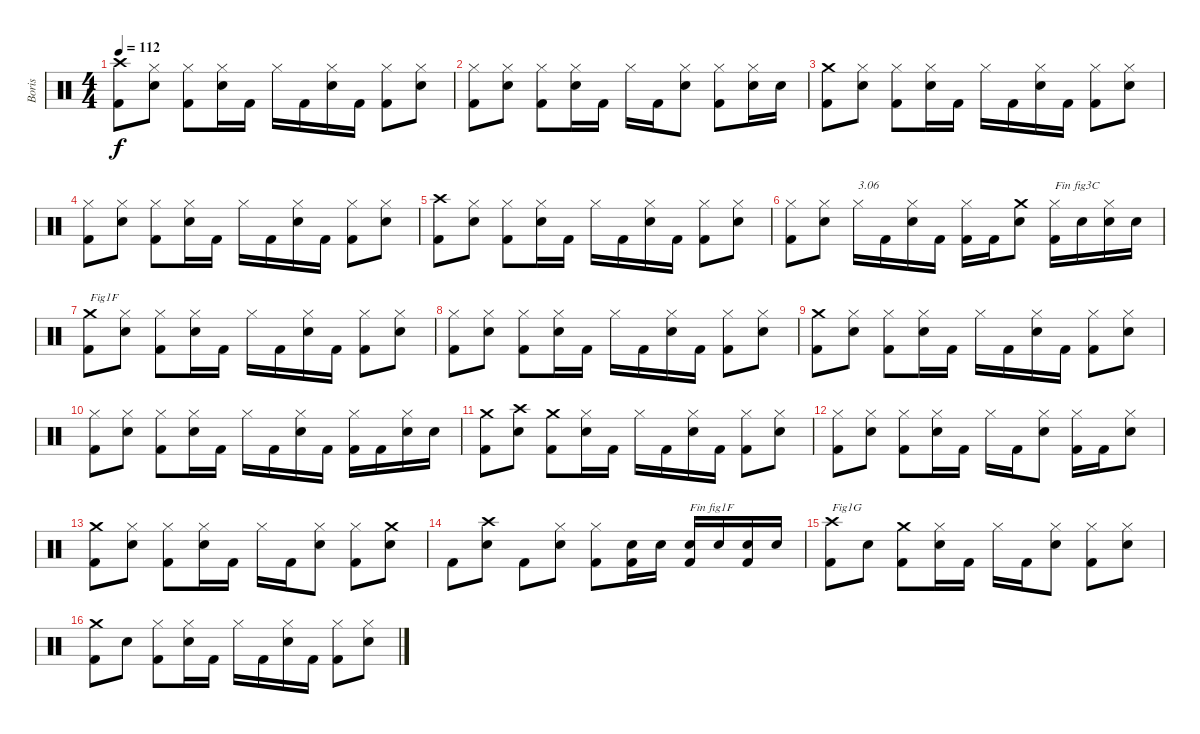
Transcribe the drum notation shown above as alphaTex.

\track ("Boris" "Boris") {instrument percussion}
\staff {score}
\articulation defaults
\ts (4 4)
\tempo 112
\clef neutral
\ks c
("Kick (hit) 2" "Crash high (hit)").8{dy f} ("Electric Snare (hit)" "Hi-Hat (closed)").8 ("Kick (hit) 2" "Hi-Hat (closed)").8 ("Electric Snare (hit)" "Hi-Hat (closed)").16 "Kick (hit) 2".16 "Hi-Hat (closed)".16 "Kick (hit) 2".16 ("Electric Snare (hit)" "Hi-Hat (closed)").16 "Kick (hit) 2".16 ("Kick (hit) 2" "Hi-Hat (closed)").8 ("Electric Snare (hit)" "Hi-Hat (closed)").8 |
("Kick (hit) 2" "Hi-Hat (closed)").8 ("Electric Snare (hit)" "Hi-Hat (closed)").8 ("Kick (hit) 2" "Hi-Hat (closed)").8 ("Electric Snare (hit)" "Hi-Hat (closed)").16 "Kick (hit) 2".16 "Hi-Hat (closed)".16 "Kick (hit) 2".16 ("Electric Snare (hit)" "Hi-Hat (closed)").8 ("Kick (hit) 2" "Hi-Hat (closed)").8 ("Electric Snare (hit)" "Hi-Hat (closed)").16 "Electric Snare (hit)".16 |
("Kick (hit) 2" "Crash medium (hit)").8 ("Electric Snare (hit)" "Hi-Hat (closed)").8 ("Kick (hit) 2" "Hi-Hat (closed)").8 ("Electric Snare (hit)" "Hi-Hat (closed)").16 "Kick (hit) 2".16 "Hi-Hat (closed)".16 "Kick (hit) 2".16 ("Electric Snare (hit)" "Hi-Hat (closed)").16 "Kick (hit) 2".16 ("Kick (hit) 2" "Hi-Hat (closed)").8 ("Electric Snare (hit)" "Hi-Hat (closed)").8 |
("Kick (hit) 2" "Hi-Hat (closed)").8 ("Electric Snare (hit)" "Hi-Hat (closed)").8 ("Kick (hit) 2" "Hi-Hat (closed)").8 ("Electric Snare (hit)" "Hi-Hat (closed)").16 "Kick (hit) 2".16 "Hi-Hat (closed)".16 "Kick (hit) 2".16 ("Electric Snare (hit)" "Hi-Hat (closed)").16 "Kick (hit) 2".16 ("Kick (hit) 2" "Hi-Hat (closed)").8 ("Electric Snare (hit)" "Hi-Hat (closed)").8 |
("Kick (hit) 2" "Crash high (hit)").8 ("Electric Snare (hit)" "Hi-Hat (closed)").8 ("Kick (hit) 2" "Hi-Hat (closed)").8 ("Electric Snare (hit)" "Hi-Hat (closed)").16 "Kick (hit) 2".16 "Hi-Hat (closed)".16 "Kick (hit) 2".16 ("Electric Snare (hit)" "Hi-Hat (closed)").16 "Kick (hit) 2".16 ("Kick (hit) 2" "Hi-Hat (closed)").8 ("Electric Snare (hit)" "Hi-Hat (closed)").8 |
("Kick (hit) 2" "Hi-Hat (closed)").8 ("Electric Snare (hit)" "Hi-Hat (closed)").8 "Hi-Hat (closed)".16{txt "3.06"} "Kick (hit) 2".16 ("Electric Snare (hit)" "Hi-Hat (closed)").16 "Kick (hit) 2".16 ("Kick (hit) 2" "Hi-Hat (closed)").16 "Kick (hit) 2".16 ("Electric Snare (hit)" "Crash medium (hit)").8 ("Kick (hit) 2" "Hi-Hat (closed)").16{txt "Fin fig3C"} "Electric Snare (hit)".16 ("Electric Snare (hit)" "Hi-Hat (closed)").16 "Electric Snare (hit)".16 |
("Kick (hit) 2" "Crash medium (hit)").8{txt "Fig1F"} ("Electric Snare (hit)" "Hi-Hat (closed)").8 ("Kick (hit) 2" "Hi-Hat (closed)").8 ("Electric Snare (hit)" "Hi-Hat (closed)").16 "Kick (hit) 2".16 "Hi-Hat (closed)".16 "Kick (hit) 2".16 ("Electric Snare (hit)" "Hi-Hat (closed)").16 "Kick (hit) 2".16 ("Kick (hit) 2" "Hi-Hat (closed)").8 ("Electric Snare (hit)" "Hi-Hat (closed)").8 |
("Kick (hit) 2" "Hi-Hat (closed)").8 ("Electric Snare (hit)" "Hi-Hat (closed)").8 ("Kick (hit) 2" "Hi-Hat (closed)").8 ("Electric Snare (hit)" "Hi-Hat (closed)").16 "Kick (hit) 2".16 "Hi-Hat (closed)".16 "Kick (hit) 2".16 ("Electric Snare (hit)" "Hi-Hat (closed)").16 "Kick (hit) 2".16 ("Kick (hit) 2" "Hi-Hat (closed)").8 ("Electric Snare (hit)" "Hi-Hat (closed)").8 |
("Kick (hit) 2" "Crash medium (hit)").8 ("Electric Snare (hit)" "Hi-Hat (closed)").8 ("Kick (hit) 2" "Hi-Hat (closed)").8 ("Electric Snare (hit)" "Hi-Hat (closed)").16 "Kick (hit) 2".16 "Hi-Hat (closed)".16 "Kick (hit) 2".16 ("Electric Snare (hit)" "Hi-Hat (closed)").16 "Kick (hit) 2".16 ("Kick (hit) 2" "Hi-Hat (closed)").8 ("Electric Snare (hit)" "Hi-Hat (closed)").8 |
("Kick (hit) 2" "Hi-Hat (closed)").8 ("Electric Snare (hit)" "Hi-Hat (closed)").8 ("Kick (hit) 2" "Hi-Hat (closed)").8 ("Electric Snare (hit)" "Hi-Hat (closed)").16 "Kick (hit) 2".16 "Hi-Hat (closed)".16 "Kick (hit) 2".16 ("Electric Snare (hit)" "Hi-Hat (closed)").16 "Kick (hit) 2".16 ("Kick (hit) 2" "Hi-Hat (closed)").16 "Kick (hit) 2".16 ("Electric Snare (hit)" "Hi-Hat (closed)").16 "Electric Snare (hit)".16 |
("Kick (hit) 2" "Crash medium (hit)").8 ("Electric Snare (hit)" "Crash high (hit)").8 ("Kick (hit) 2" "Crash medium (hit)").8 ("Electric Snare (hit)" "Hi-Hat (closed)").16 "Kick (hit) 2".16 "Hi-Hat (closed)".16 "Kick (hit) 2".16 ("Electric Snare (hit)" "Hi-Hat (closed)").16 "Kick (hit) 2".16 ("Kick (hit) 2" "Hi-Hat (closed)").8 ("Electric Snare (hit)" "Hi-Hat (closed)").8 |
("Kick (hit) 2" "Hi-Hat (closed)").8 ("Electric Snare (hit)" "Hi-Hat (closed)").8 ("Kick (hit) 2" "Hi-Hat (closed)").8 ("Electric Snare (hit)" "Hi-Hat (closed)").16 "Kick (hit) 2".16 "Hi-Hat (closed)".16 "Kick (hit) 2".16 ("Electric Snare (hit)" "Hi-Hat (closed)").8 ("Kick (hit) 2" "Hi-Hat (closed)").16 "Kick (hit) 2".16 ("Electric Snare (hit)" "Hi-Hat (closed)").8 |
("Kick (hit) 2" "Crash medium (hit)").8 ("Electric Snare (hit)" "Hi-Hat (closed)").8 ("Kick (hit) 2" "Hi-Hat (closed)").8 ("Electric Snare (hit)" "Hi-Hat (closed)").16 "Kick (hit) 2".16 "Hi-Hat (closed)".16 "Kick (hit) 2".16 ("Electric Snare (hit)" "Hi-Hat (closed)").8 ("Kick (hit) 2" "Hi-Hat (closed)").8 ("Electric Snare (hit)" "Crash medium (hit)").8 |
"Kick (hit) 2".8 ("Electric Snare (hit)" "Crash high (hit)").8 "Kick (hit) 2".8 ("Electric Snare (hit)" "Hi-Hat (closed)").8 ("Kick (hit) 2" "Hi-Hat (closed)").8 ("Kick (hit) 2" "Electric Snare (hit)").16 "Electric Snare (hit)".16 ("Kick (hit) 2" "Electric Snare (hit)").16{txt "Fin fig1F"} "Electric Snare (hit)".16 ("Kick (hit) 2" "Electric Snare (hit)").16 "Electric Snare (hit)".16 |
("Kick (hit) 2" "Crash high (hit)").8{txt "Fig1G"} "Electric Snare (hit)".8 ("Kick (hit) 2" "Crash medium (hit)").8 ("Electric Snare (hit)" "Hi-Hat (closed)").16 "Kick (hit) 2".16 "Hi-Hat (closed)".16 "Kick (hit) 2".16 ("Electric Snare (hit)" "Hi-Hat (closed)").8 ("Kick (hit) 2" "Hi-Hat (closed)").8 ("Electric Snare (hit)" "Hi-Hat (closed)").8 |
("Kick (hit) 2" "Crash medium (hit)").8 "Electric Snare (hit)".8 ("Kick (hit) 2" "Hi-Hat (closed)").8 ("Electric Snare (hit)" "Hi-Hat (closed)").16 "Kick (hit) 2".16 "Hi-Hat (closed)".16 "Kick (hit) 2".16 ("Electric Snare (hit)" "Hi-Hat (closed)").16 "Kick (hit) 2".16 ("Kick (hit) 2" "Hi-Hat (closed)").8 ("Electric Snare (hit)" "Hi-Hat (closed)").8
